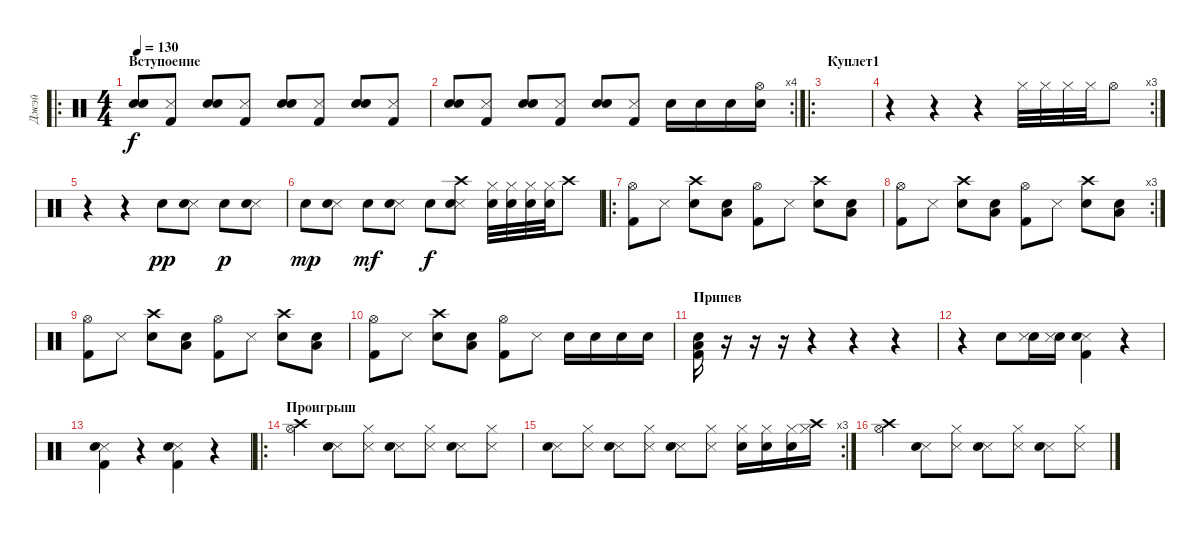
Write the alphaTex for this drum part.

\track ("Джэй" "Джэй") {instrument percussion}
\staff {score}
\articulation defaults
\ro
\ts (4 4)
\section ("" "Вступоение")
\tempo 130
\clef neutral
\ks c
("Snare (hit) 2" "Snare (hit) 2").8{dy f} ("Kick (hit) 2" "Snare (side stick) 3").8 ("Snare (hit) 2" "Snare (hit) 2").8 ("Kick (hit) 2" "Snare (side stick) 3").8 ("Snare (hit) 2" "Snare (hit) 2").8 ("Kick (hit) 2" "Snare (side stick) 3").8 ("Snare (hit) 2" "Snare (hit) 2").8 ("Kick (hit) 2" "Snare (side stick) 3").8 |
\rc 4
("Snare (hit) 2" "Snare (hit) 2").8 ("Kick (hit) 2" "Snare (side stick) 3").8 ("Snare (hit) 2" "Snare (hit) 2").8 ("Kick (hit) 2" "Snare (side stick) 3").8 ("Snare (hit) 2" "Snare (hit) 2").8 ("Kick (hit) 2" "Snare (side stick) 3").8 "Snare (hit) 2".16 "Snare (hit) 2".16 "Snare (hit) 2".16 ("Hi-Hat (open)" "Snare (hit) 2").16 |
\ro
\section ("" "Куплет1")
|
\rc 3
r.4 r.4 r.4 "Hi-Hat (closed)".32 "Hi-Hat (closed)".32 "Hi-Hat (closed)".32 "Hi-Hat (closed)".32 "Hi-Hat (open)".8 |
r.4 r.4 "Snare (hit) 2".8{dy pp} ("Snare (side stick) 3" "Snare (hit) 2").8 "Snare (hit) 2".8{dy p} ("Snare (side stick) 3" "Snare (hit) 2").8 |
"Snare (hit) 2".8{dy mp} ("Snare (side stick) 3" "Snare (hit) 2").8 "Snare (hit) 2".8{dy mf} ("Snare (side stick) 3" "Snare (hit) 2").8 "Snare (hit) 2".8{dy f} ("Crash high (hit)" "Snare (side stick) 3" "Snare (hit) 2").8 ("Snare (hit) 2" "Hi-Hat (closed)").32 ("Snare (hit) 2" "Hi-Hat (closed)").32 ("Snare (hit) 2" "Hi-Hat (closed)").32 ("Snare (hit) 2" "Hi-Hat (closed)").32 "Crash high (hit)".8 |
\ro
("Hi-Hat (open)" "Kick (hit) 2").8 "Snare (side stick) 3".8 ("Crash high (hit)" "Snare (hit) 2").8 ("Low Tom (hit)" "Snare (hit) 2").8 ("Hi-Hat (open)" "Kick (hit) 2").8 "Snare (side stick) 3".8 ("Crash high (hit)" "Snare (hit) 2").8 ("Low Tom (hit)" "Snare (hit) 2").8 |
\rc 3
("Hi-Hat (open)" "Kick (hit) 2").8 "Snare (side stick) 3".8 ("Crash high (hit)" "Snare (hit) 2").8 ("Low Tom (hit)" "Snare (hit) 2").8 ("Hi-Hat (open)" "Kick (hit) 2").8 "Snare (side stick) 3".8 ("Crash high (hit)" "Snare (hit) 2").8 ("Low Tom (hit)" "Snare (hit) 2").8 |
("Hi-Hat (open)" "Kick (hit) 2").8 "Snare (side stick) 3".8 ("Crash high (hit)" "Snare (hit) 2").8 ("Low Tom (hit)" "Snare (hit) 2").8 ("Hi-Hat (open)" "Kick (hit) 2").8 "Snare (side stick) 3".8 ("Crash high (hit)" "Snare (hit) 2").8 ("Low Tom (hit)" "Snare (hit) 2").8 |
("Hi-Hat (open)" "Kick (hit) 2").8 "Snare (side stick) 3".8 ("Crash high (hit)" "Snare (hit) 2").8 ("Low Tom (hit)" "Snare (hit) 2").8 ("Hi-Hat (open)" "Kick (hit) 2").8 "Snare (side stick) 3".8 "Snare (hit) 2".16 "Snare (hit) 2".16 "Snare (hit) 2".16 "Snare (hit) 2".16 |
\section ("" "Припев")
("Low Tom (hit)" "Kick (hit) 2" "Snare (hit) 2").16 r.16 r.16 r.16 r.4 r.4 r.4 |
r.4 "Snare (hit) 2".8 ("Snare (hit) 2" "Snare (side stick) 3").16 ("Snare (hit) 2" "Snare (side stick) 3").16 ("Snare (side stick) 3" "Kick (hit) 2" "Snare (hit) 2").4 r.4 |
("Snare (side stick) 3" "Kick (hit) 2" "Snare (hit) 2").4 r.4 ("Snare (side stick) 3" "Kick (hit) 2" "Snare (hit) 2").4 r.4 |
\ro
\section ("" "Проигрыш")
("Crash high (hit)" "Hi-Hat (open)").4 ("Snare (side stick) 3" "Snare (hit) 2").8 ("Snare (side stick) 3" "Hi-Hat (closed)").8 ("Snare (side stick) 3" "Snare (hit) 2").8 ("Snare (side stick) 3" "Hi-Hat (closed)").8 ("Snare (side stick) 3" "Snare (hit) 2").8 ("Snare (side stick) 3" "Hi-Hat (closed)").8 |
\rc 3
("Snare (side stick) 3" "Snare (hit) 2").8 ("Snare (side stick) 3" "Hi-Hat (closed)").8 ("Snare (side stick) 3" "Snare (hit) 2").8 ("Snare (side stick) 3" "Hi-Hat (closed)").8 ("Snare (side stick) 3" "Snare (hit) 2").8 ("Snare (side stick) 3" "Hi-Hat (closed)").8 ("Snare (hit) 2" "Hi-Hat (closed)").16 ("Snare (hit) 2" "Hi-Hat (closed)").16 ("Snare (hit) 2" "Hi-Hat (closed)").16 ("Crash high (hit)" "Hi-Hat (closed)").16 |
("Crash high (hit)" "Hi-Hat (open)").4 ("Snare (side stick) 3" "Snare (hit) 2").8 ("Snare (side stick) 3" "Hi-Hat (closed)").8 ("Snare (side stick) 3" "Snare (hit) 2").8 ("Snare (side stick) 3" "Hi-Hat (closed)").8 ("Snare (side stick) 3" "Snare (hit) 2").8 ("Snare (side stick) 3" "Hi-Hat (closed)").8
